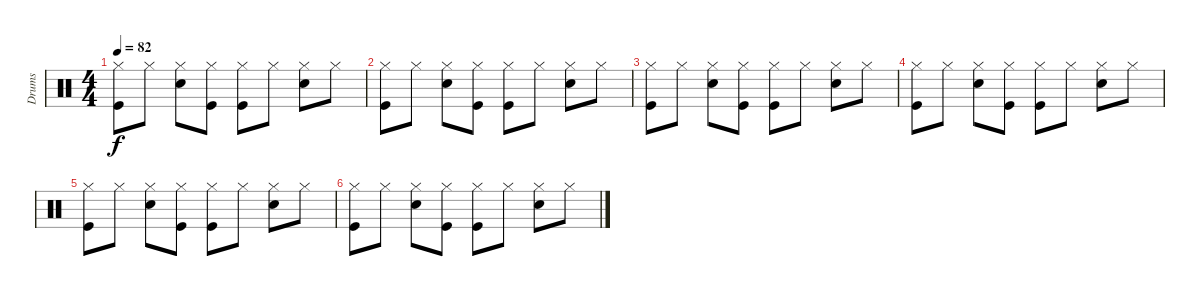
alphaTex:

\track ("Drums" "Drums") {instrument percussion}
\staff {score}
\articulation defaults
\ts (4 4)
\tempo 82
\clef neutral
\ks c
("Hi-Hat (closed)" "Kick (hit)").8{dy f} "Hi-Hat (closed)".8 ("Hi-Hat (closed)" "Electric Snare (hit)").8 ("Hi-Hat (closed)" "Kick (hit)").8 ("Hi-Hat (closed)" "Kick (hit)").8 "Hi-Hat (closed)".8 ("Hi-Hat (closed)" "Electric Snare (hit)").8 "Hi-Hat (closed)".8 |
("Hi-Hat (closed)" "Kick (hit)").8 "Hi-Hat (closed)".8 ("Hi-Hat (closed)" "Electric Snare (hit)").8 ("Hi-Hat (closed)" "Kick (hit)").8 ("Hi-Hat (closed)" "Kick (hit)").8 "Hi-Hat (closed)".8 ("Hi-Hat (closed)" "Electric Snare (hit)").8 "Hi-Hat (closed)".8 |
("Hi-Hat (closed)" "Kick (hit)").8 "Hi-Hat (closed)".8 ("Hi-Hat (closed)" "Electric Snare (hit)").8 ("Hi-Hat (closed)" "Kick (hit)").8 ("Hi-Hat (closed)" "Kick (hit)").8 "Hi-Hat (closed)".8 ("Hi-Hat (closed)" "Electric Snare (hit)").8 "Hi-Hat (closed)".8 |
("Hi-Hat (closed)" "Kick (hit)").8 "Hi-Hat (closed)".8 ("Hi-Hat (closed)" "Electric Snare (hit)").8 ("Hi-Hat (closed)" "Kick (hit)").8 ("Hi-Hat (closed)" "Kick (hit)").8 "Hi-Hat (closed)".8 ("Hi-Hat (closed)" "Electric Snare (hit)").8 "Hi-Hat (closed)".8 |
("Hi-Hat (closed)" "Kick (hit)").8 "Hi-Hat (closed)".8 ("Hi-Hat (closed)" "Electric Snare (hit)").8 ("Hi-Hat (closed)" "Kick (hit)").8 ("Hi-Hat (closed)" "Kick (hit)").8 "Hi-Hat (closed)".8 ("Hi-Hat (closed)" "Electric Snare (hit)").8 "Hi-Hat (closed)".8 |
("Hi-Hat (closed)" "Kick (hit)").8 "Hi-Hat (closed)".8 ("Hi-Hat (closed)" "Electric Snare (hit)").8 ("Hi-Hat (closed)" "Kick (hit)").8 ("Hi-Hat (closed)" "Kick (hit)").8 "Hi-Hat (closed)".8 ("Hi-Hat (closed)" "Electric Snare (hit)").8 "Hi-Hat (closed)".8
